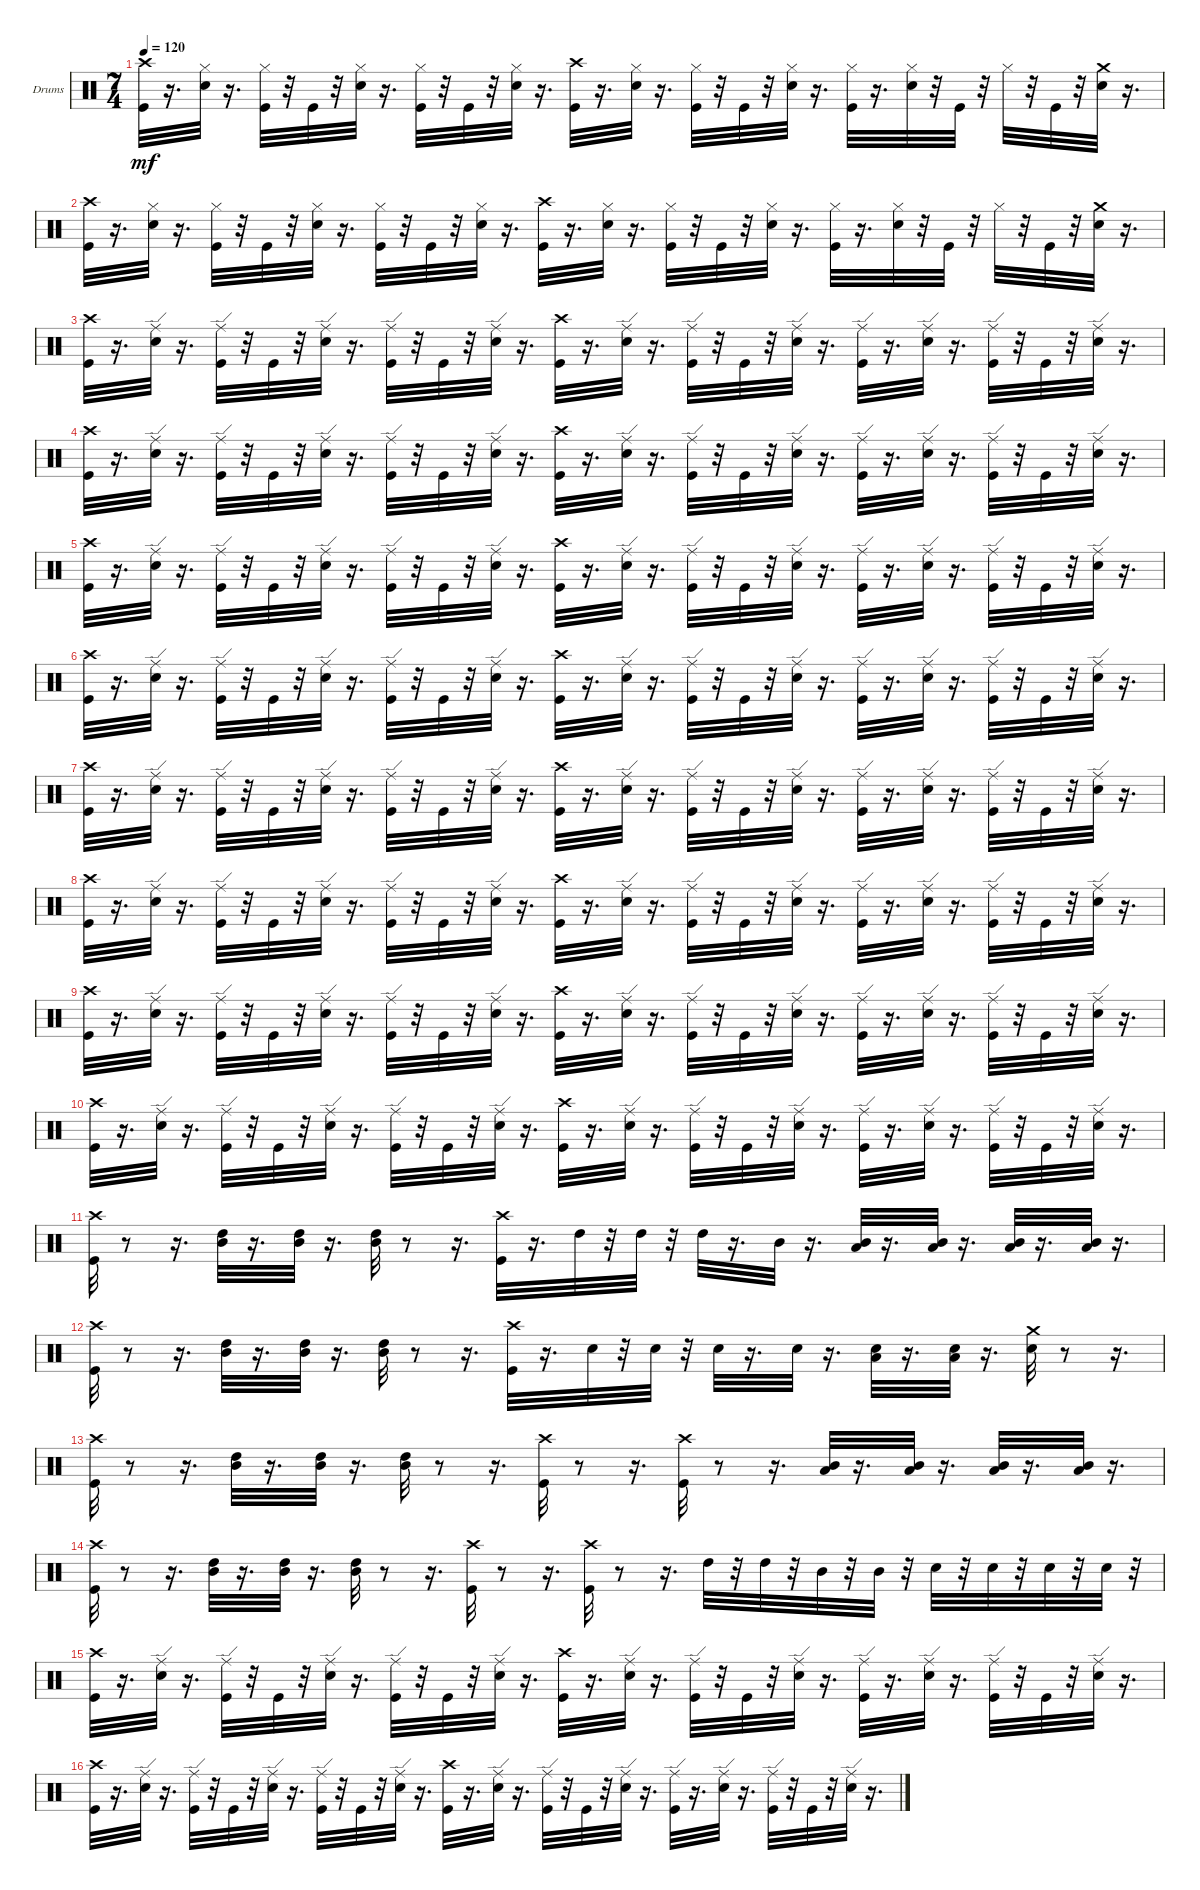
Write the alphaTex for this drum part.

\bracketExtendMode groupsimilarinstruments
\firstSystemTrackNameOrientation horizontal
\otherSystemsTrackNameOrientation horizontal
\track ("" "Drums") {instrument percussion}
\staff {score}
\articulation defaults
\ts (7 4)
\tempo 120
\clef neutral
\ks c
("Crash high (hit)" "Kick (hit)").32{dy mf} r.16{d} ("Snare (hit) 2" "Hi-Hat (closed)").32 r.16{d} ("Kick (hit)" "Hi-Hat (closed)").32 r.32 "Kick (hit)".32 r.32 ("Snare (hit) 2" "Hi-Hat (closed)").32 r.16{d} ("Kick (hit)" "Hi-Hat (closed)").32 r.32 "Kick (hit)".32 r.32 ("Snare (hit) 2" "Hi-Hat (closed)").32 r.16{d} ("Crash high (hit)" "Kick (hit)").32 r.16{d} ("Snare (hit) 2" "Hi-Hat (closed)").32 r.16{d} ("Kick (hit)" "Hi-Hat (closed)").32 r.32 "Kick (hit)".32 r.32 ("Snare (hit) 2" "Hi-Hat (closed)").32 r.16{d} ("Kick (hit)" "Hi-Hat (closed)").32 r.16{d} ("Snare (hit) 2" "Hi-Hat (closed)").32 r.32 "Kick (hit)".32 r.32 "Hi-Hat (closed)".32 r.32 "Kick (hit)".32 r.32 ("Crash medium (hit)" "Snare (hit) 2").32 r.16{d} |
("Crash high (hit)" "Kick (hit)").32 r.16{d} ("Snare (hit) 2" "Hi-Hat (closed)").32 r.16{d} ("Kick (hit)" "Hi-Hat (closed)").32 r.32 "Kick (hit)".32 r.32 ("Snare (hit) 2" "Hi-Hat (closed)").32 r.16{d} ("Kick (hit)" "Hi-Hat (closed)").32 r.32 "Kick (hit)".32 r.32 ("Snare (hit) 2" "Hi-Hat (closed)").32 r.16{d} ("Crash high (hit)" "Kick (hit)").32 r.16{d} ("Snare (hit) 2" "Hi-Hat (closed)").32 r.16{d} ("Kick (hit)" "Hi-Hat (closed)").32 r.32 "Kick (hit)".32 r.32 ("Snare (hit) 2" "Hi-Hat (closed)").32 r.16{d} ("Kick (hit)" "Hi-Hat (closed)").32 r.16{d} ("Snare (hit) 2" "Hi-Hat (closed)").32 r.32 "Kick (hit)".32 r.32 "Hi-Hat (closed)".32 r.32 "Kick (hit)".32 r.32 ("Crash medium (hit)" "Snare (hit) 2").32 r.16{d} |
("Crash high (hit)" "Kick (hit)").32 r.16{d} ("Snare (hit) 2" "Ride (edge)").32 r.16{d} ("Kick (hit)" "Ride (edge)").32 r.32 "Kick (hit)".32 r.32 ("Snare (hit) 2" "Ride (edge)").32 r.16{d} ("Kick (hit)" "Ride (edge)").32 r.32 "Kick (hit)".32 r.32 ("Ride (edge)" "Snare (hit) 2").32 r.16{d} ("Crash high (hit)" "Kick (hit)").32 r.16{d} ("Snare (hit) 2" "Ride (edge)").32 r.16{d} ("Kick (hit)" "Ride (edge)").32 r.32 "Kick (hit)".32 r.32 ("Snare (hit) 2" "Ride (edge)").32 r.16{d} ("Kick (hit)" "Ride (edge)").32 r.16{d} ("Snare (hit) 2" "Ride (edge)").32 r.16{d} ("Kick (hit)" "Ride (edge)").32 r.32 "Kick (hit)".32 r.32 ("Snare (hit) 2" "Ride (edge)").32 r.16{d} |
("Crash high (hit)" "Kick (hit)").32 r.16{d} ("Snare (hit) 2" "Ride (edge)").32 r.16{d} ("Kick (hit)" "Ride (edge)").32 r.32 "Kick (hit)".32 r.32 ("Snare (hit) 2" "Ride (edge)").32 r.16{d} ("Kick (hit)" "Ride (edge)").32 r.32 "Kick (hit)".32 r.32 ("Ride (edge)" "Snare (hit) 2").32 r.16{d} ("Crash high (hit)" "Kick (hit)").32 r.16{d} ("Snare (hit) 2" "Ride (edge)").32 r.16{d} ("Kick (hit)" "Ride (edge)").32 r.32 "Kick (hit)".32 r.32 ("Snare (hit) 2" "Ride (edge)").32 r.16{d} ("Kick (hit)" "Ride (edge)").32 r.16{d} ("Snare (hit) 2" "Ride (edge)").32 r.16{d} ("Kick (hit)" "Ride (edge)").32 r.32 "Kick (hit)".32 r.32 ("Snare (hit) 2" "Ride (edge)").32 r.16{d} |
("Crash high (hit)" "Kick (hit)").32 r.16{d} ("Snare (hit) 2" "Ride (edge)").32 r.16{d} ("Kick (hit)" "Ride (edge)").32 r.32 "Kick (hit)".32 r.32 ("Snare (hit) 2" "Ride (edge)").32 r.16{d} ("Kick (hit)" "Ride (edge)").32 r.32 "Kick (hit)".32 r.32 ("Ride (edge)" "Snare (hit) 2").32 r.16{d} ("Crash high (hit)" "Kick (hit)").32 r.16{d} ("Snare (hit) 2" "Ride (edge)").32 r.16{d} ("Kick (hit)" "Ride (edge)").32 r.32 "Kick (hit)".32 r.32 ("Snare (hit) 2" "Ride (edge)").32 r.16{d} ("Kick (hit)" "Ride (edge)").32 r.16{d} ("Snare (hit) 2" "Ride (edge)").32 r.16{d} ("Kick (hit)" "Ride (edge)").32 r.32 "Kick (hit)".32 r.32 ("Snare (hit) 2" "Ride (edge)").32 r.16{d} |
("Crash high (hit)" "Kick (hit)").32 r.16{d} ("Snare (hit) 2" "Ride (edge)").32 r.16{d} ("Kick (hit)" "Ride (edge)").32 r.32 "Kick (hit)".32 r.32 ("Snare (hit) 2" "Ride (edge)").32 r.16{d} ("Kick (hit)" "Ride (edge)").32 r.32 "Kick (hit)".32 r.32 ("Ride (edge)" "Snare (hit) 2").32 r.16{d} ("Crash high (hit)" "Kick (hit)").32 r.16{d} ("Snare (hit) 2" "Ride (edge)").32 r.16{d} ("Kick (hit)" "Ride (edge)").32 r.32 "Kick (hit)".32 r.32 ("Snare (hit) 2" "Ride (edge)").32 r.16{d} ("Kick (hit)" "Ride (edge)").32 r.16{d} ("Snare (hit) 2" "Ride (edge)").32 r.16{d} ("Kick (hit)" "Ride (edge)").32 r.32 "Kick (hit)".32 r.32 ("Snare (hit) 2" "Ride (edge)").32 r.16{d} |
("Crash high (hit)" "Kick (hit)").32 r.16{d} ("Snare (hit) 2" "Ride (edge)").32 r.16{d} ("Kick (hit)" "Ride (edge)").32 r.32 "Kick (hit)".32 r.32 ("Snare (hit) 2" "Ride (edge)").32 r.16{d} ("Kick (hit)" "Ride (edge)").32 r.32 "Kick (hit)".32 r.32 ("Ride (edge)" "Snare (hit) 2").32 r.16{d} ("Crash high (hit)" "Kick (hit)").32 r.16{d} ("Snare (hit) 2" "Ride (edge)").32 r.16{d} ("Kick (hit)" "Ride (edge)").32 r.32 "Kick (hit)".32 r.32 ("Snare (hit) 2" "Ride (edge)").32 r.16{d} ("Kick (hit)" "Ride (edge)").32 r.16{d} ("Snare (hit) 2" "Ride (edge)").32 r.16{d} ("Kick (hit)" "Ride (edge)").32 r.32 "Kick (hit)".32 r.32 ("Snare (hit) 2" "Ride (edge)").32 r.16{d} |
("Crash high (hit)" "Kick (hit)").32 r.16{d} ("Snare (hit) 2" "Ride (edge)").32 r.16{d} ("Kick (hit)" "Ride (edge)").32 r.32 "Kick (hit)".32 r.32 ("Snare (hit) 2" "Ride (edge)").32 r.16{d} ("Kick (hit)" "Ride (edge)").32 r.32 "Kick (hit)".32 r.32 ("Ride (edge)" "Snare (hit) 2").32 r.16{d} ("Crash high (hit)" "Kick (hit)").32 r.16{d} ("Snare (hit) 2" "Ride (edge)").32 r.16{d} ("Kick (hit)" "Ride (edge)").32 r.32 "Kick (hit)".32 r.32 ("Snare (hit) 2" "Ride (edge)").32 r.16{d} ("Kick (hit)" "Ride (edge)").32 r.16{d} ("Snare (hit) 2" "Ride (edge)").32 r.16{d} ("Kick (hit)" "Ride (edge)").32 r.32 "Kick (hit)".32 r.32 ("Snare (hit) 2" "Ride (edge)").32 r.16{d} |
("Crash high (hit)" "Kick (hit)").32 r.16{d} ("Snare (hit) 2" "Ride (edge)").32 r.16{d} ("Kick (hit)" "Ride (edge)").32 r.32 "Kick (hit)".32 r.32 ("Snare (hit) 2" "Ride (edge)").32 r.16{d} ("Kick (hit)" "Ride (edge)").32 r.32 "Kick (hit)".32 r.32 ("Ride (edge)" "Snare (hit) 2").32 r.16{d} ("Crash high (hit)" "Kick (hit)").32 r.16{d} ("Snare (hit) 2" "Ride (edge)").32 r.16{d} ("Kick (hit)" "Ride (edge)").32 r.32 "Kick (hit)".32 r.32 ("Snare (hit) 2" "Ride (edge)").32 r.16{d} ("Kick (hit)" "Ride (edge)").32 r.16{d} ("Snare (hit) 2" "Ride (edge)").32 r.16{d} ("Kick (hit)" "Ride (edge)").32 r.32 "Kick (hit)".32 r.32 ("Snare (hit) 2" "Ride (edge)").32 r.16{d} |
("Crash high (hit)" "Kick (hit)").32 r.16{d} ("Snare (hit) 2" "Ride (edge)").32 r.16{d} ("Kick (hit)" "Ride (edge)").32 r.32 "Kick (hit)".32 r.32 ("Snare (hit) 2" "Ride (edge)").32 r.16{d} ("Kick (hit)" "Ride (edge)").32 r.32 "Kick (hit)".32 r.32 ("Ride (edge)" "Snare (hit) 2").32 r.16{d} ("Crash high (hit)" "Kick (hit)").32 r.16{d} ("Snare (hit) 2" "Ride (edge)").32 r.16{d} ("Kick (hit)" "Ride (edge)").32 r.32 "Kick (hit)".32 r.32 ("Snare (hit) 2" "Ride (edge)").32 r.16{d} ("Kick (hit)" "Ride (edge)").32 r.16{d} ("Snare (hit) 2" "Ride (edge)").32 r.16{d} ("Kick (hit)" "Ride (edge)").32 r.32 "Kick (hit)".32 r.32 ("Snare (hit) 2" "Ride (edge)").32 r.16{d} |
("Crash high (hit)" "Kick (hit)").32 r.8 r.16{d} ("High Tom (hit)" "Mid Tom (hit)").32 r.16{d} ("High Tom (hit)" "Mid Tom (hit)").32 r.16{d} ("High Tom (hit)" "Mid Tom (hit)").32 r.8 r.16{d} ("Crash high (hit)" "Kick (hit)").32 r.16{d} "High Tom (hit)".32 r.32 "High Tom (hit)".32 r.32 "High Tom (hit)".32 r.16{d} "Mid Tom (hit)".32 r.16{d} ("Low Tom (hit)" "Mid Tom (hit)").32 r.16{d} ("Low Tom (hit)" "Mid Tom (hit)").32 r.16{d} ("Low Tom (hit)" "Mid Tom (hit)").32 r.16{d} ("Mid Tom (hit)" "Low Tom (hit)").32 r.16{d} |
("Crash high (hit)" "Kick (hit)").32 r.8 r.16{d} ("High Tom (hit)" "Mid Tom (hit)").32 r.16{d} ("High Tom (hit)" "Mid Tom (hit)").32 r.16{d} ("High Tom (hit)" "Mid Tom (hit)").32 r.8 r.16{d} ("Crash high (hit)" "Kick (hit)").32 r.16{d} "Snare (hit) 2".32 r.32 "Snare (hit) 2".32 r.32 "Snare (hit) 2".32 r.16{d} "Snare (hit) 2".32 r.16{d} ("Low Tom (hit)" "Snare (hit) 2").32 r.16{d} ("Low Tom (hit)" "Snare (hit) 2").32 r.16{d} ("Crash medium (hit)" "Snare (hit) 2").32 r.8 r.16{d} |
("Crash high (hit)" "Kick (hit)").32 r.8 r.16{d} ("High Tom (hit)" "Mid Tom (hit)").32 r.16{d} ("High Tom (hit)" "Mid Tom (hit)").32 r.16{d} ("High Tom (hit)" "Mid Tom (hit)").32 r.8 r.16{d} ("Crash high (hit)" "Kick (hit)").32 r.8 r.16{d} ("Crash high (hit)" "Kick (hit)").32 r.8 r.16{d} ("Low Tom (hit)" "Mid Tom (hit)").32 r.16{d} ("Low Tom (hit)" "Mid Tom (hit)").32 r.16{d} ("Low Tom (hit)" "Mid Tom (hit)").32 r.16{d} ("Mid Tom (hit)" "Low Tom (hit)").32 r.16{d} |
("Crash high (hit)" "Kick (hit)").32 r.8 r.16{d} ("High Tom (hit)" "Mid Tom (hit)").32 r.16{d} ("High Tom (hit)" "Mid Tom (hit)").32 r.16{d} ("High Tom (hit)" "Mid Tom (hit)").32 r.8 r.16{d} ("Crash high (hit)" "Kick (hit)").32 r.8 r.16{d} ("Crash high (hit)" "Kick (hit)").32 r.8 r.16{d} "High Tom (hit)".32 r.32 "High Tom (hit)".32 r.32 "Mid Tom (hit)".32 r.32 "Mid Tom (hit)".32 r.32 "Snare (hit) 2".32 r.32 "Snare (hit) 2".32 r.32 "Snare (hit) 2".32 r.32 "Snare (hit) 2".32 r.32 |
("Crash high (hit)" "Kick (hit)").32 r.16{d} ("Snare (hit) 2" "Ride (edge)").32 r.16{d} ("Kick (hit)" "Ride (edge)").32 r.32 "Kick (hit)".32 r.32 ("Snare (hit) 2" "Ride (edge)").32 r.16{d} ("Kick (hit)" "Ride (edge)").32 r.32 "Kick (hit)".32 r.32 ("Ride (edge)" "Snare (hit) 2").32 r.16{d} ("Crash high (hit)" "Kick (hit)").32 r.16{d} ("Snare (hit) 2" "Ride (edge)").32 r.16{d} ("Kick (hit)" "Ride (edge)").32 r.32 "Kick (hit)".32 r.32 ("Snare (hit) 2" "Ride (edge)").32 r.16{d} ("Kick (hit)" "Ride (edge)").32 r.16{d} ("Snare (hit) 2" "Ride (edge)").32 r.16{d} ("Kick (hit)" "Ride (edge)").32 r.32 "Kick (hit)".32 r.32 ("Snare (hit) 2" "Ride (edge)").32 r.16{d} |
("Crash high (hit)" "Kick (hit)").32 r.16{d} ("Snare (hit) 2" "Ride (edge)").32 r.16{d} ("Kick (hit)" "Ride (edge)").32 r.32 "Kick (hit)".32 r.32 ("Snare (hit) 2" "Ride (edge)").32 r.16{d} ("Kick (hit)" "Ride (edge)").32 r.32 "Kick (hit)".32 r.32 ("Ride (edge)" "Snare (hit) 2").32 r.16{d} ("Crash high (hit)" "Kick (hit)").32 r.16{d} ("Snare (hit) 2" "Ride (edge)").32 r.16{d} ("Kick (hit)" "Ride (edge)").32 r.32 "Kick (hit)".32 r.32 ("Snare (hit) 2" "Ride (edge)").32 r.16{d} ("Kick (hit)" "Ride (edge)").32 r.16{d} ("Snare (hit) 2" "Ride (edge)").32 r.16{d} ("Kick (hit)" "Ride (edge)").32 r.32 "Kick (hit)".32 r.32 ("Snare (hit) 2" "Ride (edge)").32 r.16{d}
